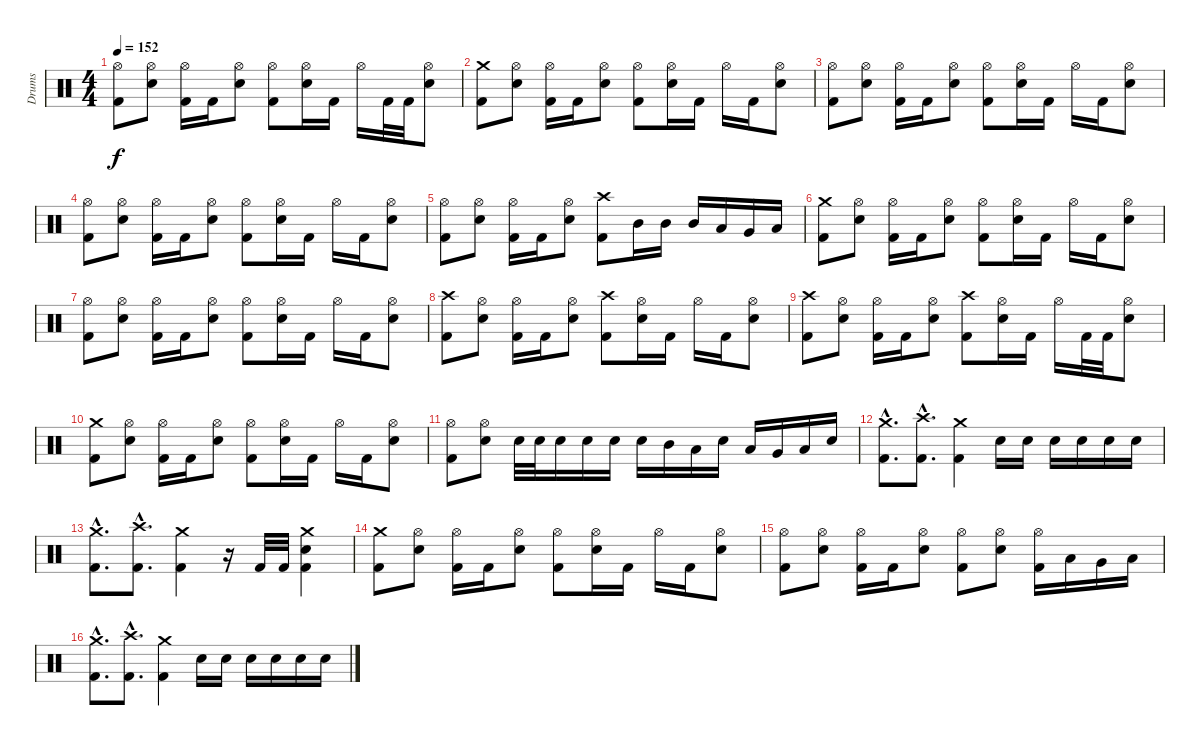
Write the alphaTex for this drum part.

\track ("Drums" "Drums") {instrument percussion}
\staff {score}
\articulation defaults
\ts (4 4)
\tempo 152
\clef neutral
\ks c
("Hi-Hat (open)" "Kick (hit) 2").8{dy f} ("Hi-Hat (open)" "Snare (hit) 2").8 ("Hi-Hat (open)" "Kick (hit) 2").16 "Kick (hit) 2".16 ("Hi-Hat (open)" "Snare (hit) 2").8 ("Hi-Hat (open)" "Kick (hit) 2").8 ("Hi-Hat (open)" "Snare (hit) 2").16 "Kick (hit) 2".16 "Hi-Hat (open)".16 "Kick (hit) 2".32 "Kick (hit) 2".32 ("Hi-Hat (open)" "Snare (hit) 2").8 |
("Crash medium (hit)" "Kick (hit) 2").8 ("Hi-Hat (open)" "Snare (hit) 2").8 ("Hi-Hat (open)" "Kick (hit) 2").16 "Kick (hit) 2".16 ("Hi-Hat (open)" "Snare (hit) 2").8 ("Hi-Hat (open)" "Kick (hit) 2").8 ("Hi-Hat (open)" "Snare (hit) 2").16 "Kick (hit) 2".16 "Hi-Hat (open)".16 "Kick (hit) 2".16 ("Hi-Hat (open)" "Snare (hit) 2").8 |
("Hi-Hat (open)" "Kick (hit) 2").8 ("Hi-Hat (open)" "Snare (hit) 2").8 ("Hi-Hat (open)" "Kick (hit) 2").16 "Kick (hit) 2".16 ("Hi-Hat (open)" "Snare (hit) 2").8 ("Hi-Hat (open)" "Kick (hit) 2").8 ("Hi-Hat (open)" "Snare (hit) 2").16 "Kick (hit) 2".16 "Hi-Hat (open)".16 "Kick (hit) 2".16 ("Hi-Hat (open)" "Snare (hit) 2").8 |
("Hi-Hat (open)" "Kick (hit) 2").8 ("Hi-Hat (open)" "Snare (hit) 2").8 ("Hi-Hat (open)" "Kick (hit) 2").16 "Kick (hit) 2".16 ("Hi-Hat (open)" "Snare (hit) 2").8 ("Hi-Hat (open)" "Kick (hit) 2").8 ("Hi-Hat (open)" "Snare (hit) 2").16 "Kick (hit) 2".16 "Hi-Hat (open)".16 "Kick (hit) 2".16 ("Hi-Hat (open)" "Snare (hit) 2").8 |
("Hi-Hat (open)" "Kick (hit) 2").8 ("Hi-Hat (open)" "Snare (hit) 2").8 ("Hi-Hat (open)" "Kick (hit) 2").16 "Kick (hit) 2".16 ("Hi-Hat (open)" "Snare (hit) 2").8 ("Crash high (hit)" "Kick (hit) 2").8 "Mid Tom (hit)".16 "Mid Tom (hit)".16 "Mid Tom (hit)".16 "Low Tom (hit)".16 "Very Low Tom (hit)".16 "Low Floor Tom (hit)".16 |
("Crash medium (hit)" "Kick (hit) 2").8 ("Hi-Hat (open)" "Snare (hit) 2").8 ("Hi-Hat (open)" "Kick (hit) 2").16 "Kick (hit) 2".16 ("Hi-Hat (open)" "Snare (hit) 2").8 ("Hi-Hat (open)" "Kick (hit) 2").8 ("Hi-Hat (open)" "Snare (hit) 2").16 "Kick (hit) 2".16 "Hi-Hat (open)".16 "Kick (hit) 2".16 ("Hi-Hat (open)" "Snare (hit) 2").8 |
("Hi-Hat (open)" "Kick (hit) 2").8 ("Hi-Hat (open)" "Snare (hit) 2").8 ("Hi-Hat (open)" "Kick (hit) 2").16 "Kick (hit) 2".16 ("Hi-Hat (open)" "Snare (hit) 2").8 ("Hi-Hat (open)" "Kick (hit) 2").8 ("Hi-Hat (open)" "Snare (hit) 2").16 "Kick (hit) 2".16 "Hi-Hat (open)".16 "Kick (hit) 2".16 ("Hi-Hat (open)" "Snare (hit) 2").8 |
("Crash high (hit)" "Kick (hit) 2").8 ("Hi-Hat (open)" "Snare (hit) 2").8 ("Hi-Hat (open)" "Kick (hit) 2").16 "Kick (hit) 2".16 ("Hi-Hat (open)" "Snare (hit) 2").8 ("Crash high (hit)" "Kick (hit) 2").8 ("Hi-Hat (open)" "Snare (hit) 2").16 "Kick (hit) 2".16 "Hi-Hat (open)".16 "Kick (hit) 2".16 ("Hi-Hat (open)" "Snare (hit) 2").8 |
("Crash high (hit)" "Kick (hit) 2").8 ("Hi-Hat (open)" "Snare (hit) 2").8 ("Hi-Hat (open)" "Kick (hit) 2").16 "Kick (hit) 2".16 ("Hi-Hat (open)" "Snare (hit) 2").8 ("Crash high (hit)" "Kick (hit) 2").8 ("Hi-Hat (open)" "Snare (hit) 2").16 "Kick (hit) 2".16 "Hi-Hat (open)".16 "Kick (hit) 2".32 "Kick (hit) 2".32 ("Hi-Hat (open)" "Snare (hit) 2").8 |
("Crash medium (hit)" "Kick (hit) 2").8 ("Hi-Hat (open)" "Snare (hit) 2").8 ("Hi-Hat (open)" "Kick (hit) 2").16 "Kick (hit) 2".16 ("Hi-Hat (open)" "Snare (hit) 2").8 ("Hi-Hat (open)" "Kick (hit) 2").8 ("Hi-Hat (open)" "Snare (hit) 2").16 "Kick (hit) 2".16 "Hi-Hat (open)".16 "Kick (hit) 2".16 ("Hi-Hat (open)" "Snare (hit) 2").8 |
("Hi-Hat (open)" "Kick (hit) 2").8 ("Hi-Hat (open)" "Snare (hit) 2").8 "Snare (hit) 2".32 "Snare (hit) 2".32 "Snare (hit) 2".16 "Snare (hit) 2".16 "Snare (hit) 2".16 "Snare (hit) 2".16 "Mid Tom (hit)".16 "Low Tom (hit)".16 "Snare (hit) 2".16 "Low Tom (hit)".16 "Very Low Tom (hit)".16 "Low Floor Tom (hit)".16 "Snare (hit) 2".16 |
("Crash medium (hit)"{hac} "Kick (hit) 2"{hac}).8{d} ("Crash high (hit)"{hac} "Kick (hit) 2"{hac}).8{d} ("Crash medium (hit)" "Kick (hit) 2").4 "Snare (hit) 2".16 "Snare (hit) 2".16 "Snare (hit) 2".16 "Snare (hit) 2".16 "Snare (hit) 2".16 "Snare (hit) 2".16 |
("Crash medium (hit)"{hac} "Kick (hit) 2"{hac}).8{d} ("Crash high (hit)"{hac} "Kick (hit) 2"{hac}).8{d} ("Crash medium (hit)" "Kick (hit) 2").4 r.16 "Kick (hit) 2".32 "Kick (hit) 2".32 ("Crash medium (hit)" "Snare (hit) 2" "Kick (hit) 2").4 |
("Crash medium (hit)" "Kick (hit) 2").8 ("Hi-Hat (open)" "Snare (hit) 2").8 ("Hi-Hat (open)" "Kick (hit) 2").16 "Kick (hit) 2".16 ("Hi-Hat (open)" "Snare (hit) 2").8 ("Hi-Hat (open)" "Kick (hit) 2").8 ("Hi-Hat (open)" "Snare (hit) 2").16 "Kick (hit) 2".16 "Hi-Hat (open)".16 "Kick (hit) 2".16 ("Hi-Hat (open)" "Snare (hit) 2").8 |
("Hi-Hat (open)" "Kick (hit) 2").8 ("Hi-Hat (open)" "Snare (hit) 2").8 ("Hi-Hat (open)" "Kick (hit) 2").16 "Kick (hit) 2".16 ("Hi-Hat (open)" "Snare (hit) 2").8 ("Hi-Hat (open)" "Kick (hit) 2").8 ("Hi-Hat (open)" "Snare (hit) 2").8 ("Hi-Hat (open)" "Kick (hit) 2").16 "Low Tom (hit)".16 "Very Low Tom (hit)".16 "Low Floor Tom (hit)".16 |
("Crash medium (hit)"{hac} "Kick (hit) 2"{hac}).8{d} ("Crash high (hit)"{hac} "Kick (hit) 2"{hac}).8{d} ("Crash medium (hit)" "Kick (hit) 2").4 "Snare (hit) 2".16 "Snare (hit) 2".16 "Snare (hit) 2".16 "Snare (hit) 2".16 "Snare (hit) 2".16 "Snare (hit) 2".16
